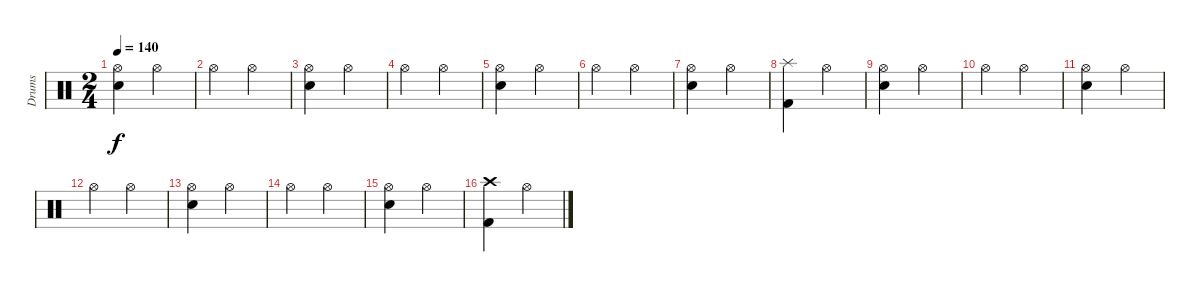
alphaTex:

\track ("Drums" "Drums") {instrument percussion}
\staff {score}
\articulation defaults
\ts (2 4)
\tempo 140
\clef neutral
\ks c
("Hi-Hat (open)" "Snare (hit) 2").4{dy f} "Hi-Hat (open)".4 |
"Hi-Hat (open)".4 "Hi-Hat (open)".4 |
("Hi-Hat (open)" "Snare (hit) 2").4 "Hi-Hat (open)".4 |
"Hi-Hat (open)".4 "Hi-Hat (open)".4 |
("Hi-Hat (open)" "Snare (hit) 2").4 "Hi-Hat (open)".4 |
"Hi-Hat (open)".4 "Hi-Hat (open)".4 |
("Hi-Hat (open)" "Snare (hit) 2").4 "Hi-Hat (open)".4 |
("Splash (hit)" "Kick (hit) 2").4 "Hi-Hat (open)".4 |
("Hi-Hat (open)" "Snare (hit) 2").4 "Hi-Hat (open)".4 |
"Hi-Hat (open)".4 "Hi-Hat (open)".4 |
("Hi-Hat (open)" "Snare (hit) 2").4 "Hi-Hat (open)".4 |
"Hi-Hat (open)".4 "Hi-Hat (open)".4 |
("Hi-Hat (open)" "Snare (hit) 2").4 "Hi-Hat (open)".4 |
"Hi-Hat (open)".4 "Hi-Hat (open)".4 |
("Hi-Hat (open)" "Snare (hit) 2").4 "Hi-Hat (open)".4 |
("Crash high (hit)" "Kick (hit) 2").4 "Hi-Hat (open)".4
